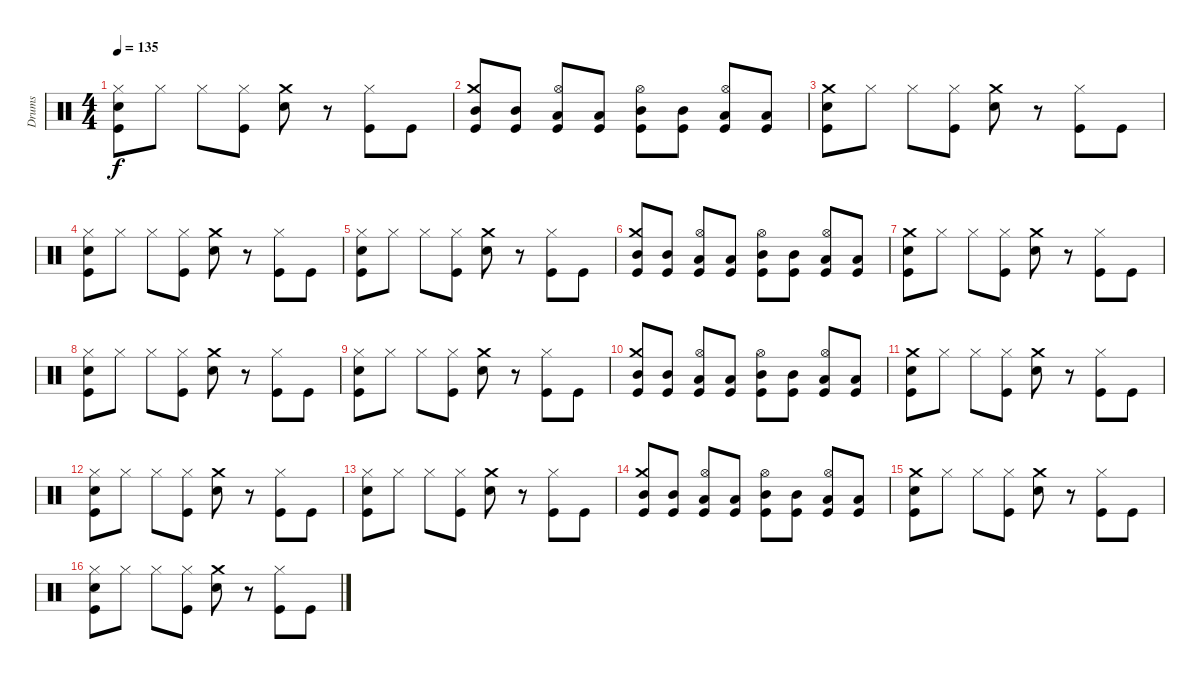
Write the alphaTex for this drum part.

\track ("Drums" "Drums") {instrument percussion}
\staff {score}
\articulation defaults
\ts (4 4)
\tempo 135
\clef neutral
\ks c
("Hi-Hat (closed)" "Snare (hit) 2" "Kick (hit)").8{dy f} "Hi-Hat (closed)".8 "Hi-Hat (closed)".8 ("Hi-Hat (closed)" "Kick (hit)").8 ("Crash medium (hit)" "Snare (hit) 2").8 r.8 ("Hi-Hat (closed)" "Kick (hit)").8 "Kick (hit)".8 |
("Crash medium (hit)" "Mid Tom (hit)" "Kick (hit)").8 ("Mid Tom (hit)" "Kick (hit)").8 ("Hi-Hat (open)" "Low Tom (hit)" "Kick (hit)").8 ("Low Tom (hit)" "Kick (hit)").8 ("Hi-Hat (open)" "Mid Tom (hit)" "Kick (hit)").8 ("Mid Tom (hit)" "Kick (hit)").8 ("Hi-Hat (open)" "Low Tom (hit)" "Kick (hit)").8 ("Low Tom (hit)" "Kick (hit)").8 |
("Crash medium (hit)" "Snare (hit) 2" "Kick (hit)").8 "Hi-Hat (closed)".8 "Hi-Hat (closed)".8 ("Hi-Hat (closed)" "Kick (hit)").8 ("Crash medium (hit)" "Snare (hit) 2").8 r.8 ("Hi-Hat (closed)" "Kick (hit)").8 "Kick (hit)".8 |
("Hi-Hat (closed)" "Snare (hit) 2" "Kick (hit)").8 "Hi-Hat (closed)".8 "Hi-Hat (closed)".8 ("Hi-Hat (closed)" "Kick (hit)").8 ("Crash medium (hit)" "Snare (hit) 2").8 r.8 ("Hi-Hat (closed)" "Kick (hit)").8 "Kick (hit)".8 |
("Hi-Hat (closed)" "Snare (hit) 2" "Kick (hit)").8 "Hi-Hat (closed)".8 "Hi-Hat (closed)".8 ("Hi-Hat (closed)" "Kick (hit)").8 ("Crash medium (hit)" "Snare (hit) 2").8 r.8 ("Hi-Hat (closed)" "Kick (hit)").8 "Kick (hit)".8 |
("Crash medium (hit)" "Mid Tom (hit)" "Kick (hit)").8 ("Mid Tom (hit)" "Kick (hit)").8 ("Hi-Hat (open)" "Low Tom (hit)" "Kick (hit)").8 ("Low Tom (hit)" "Kick (hit)").8 ("Hi-Hat (open)" "Mid Tom (hit)" "Kick (hit)").8 ("Mid Tom (hit)" "Kick (hit)").8 ("Hi-Hat (open)" "Low Tom (hit)" "Kick (hit)").8 ("Low Tom (hit)" "Kick (hit)").8 |
("Crash medium (hit)" "Snare (hit) 2" "Kick (hit)").8 "Hi-Hat (closed)".8 "Hi-Hat (closed)".8 ("Hi-Hat (closed)" "Kick (hit)").8 ("Crash medium (hit)" "Snare (hit) 2").8 r.8 ("Hi-Hat (closed)" "Kick (hit)").8 "Kick (hit)".8 |
("Hi-Hat (closed)" "Snare (hit) 2" "Kick (hit)").8 "Hi-Hat (closed)".8 "Hi-Hat (closed)".8 ("Hi-Hat (closed)" "Kick (hit)").8 ("Crash medium (hit)" "Snare (hit) 2").8 r.8 ("Hi-Hat (closed)" "Kick (hit)").8 "Kick (hit)".8 |
("Hi-Hat (closed)" "Snare (hit) 2" "Kick (hit)").8 "Hi-Hat (closed)".8 "Hi-Hat (closed)".8 ("Hi-Hat (closed)" "Kick (hit)").8 ("Crash medium (hit)" "Snare (hit) 2").8 r.8 ("Hi-Hat (closed)" "Kick (hit)").8 "Kick (hit)".8 |
("Crash medium (hit)" "Mid Tom (hit)" "Kick (hit)").8 ("Mid Tom (hit)" "Kick (hit)").8 ("Hi-Hat (open)" "Low Tom (hit)" "Kick (hit)").8 ("Low Tom (hit)" "Kick (hit)").8 ("Hi-Hat (open)" "Mid Tom (hit)" "Kick (hit)").8 ("Mid Tom (hit)" "Kick (hit)").8 ("Hi-Hat (open)" "Low Tom (hit)" "Kick (hit)").8 ("Low Tom (hit)" "Kick (hit)").8 |
("Crash medium (hit)" "Snare (hit) 2" "Kick (hit)").8 "Hi-Hat (closed)".8 "Hi-Hat (closed)".8 ("Hi-Hat (closed)" "Kick (hit)").8 ("Crash medium (hit)" "Snare (hit) 2").8 r.8 ("Hi-Hat (closed)" "Kick (hit)").8 "Kick (hit)".8 |
("Hi-Hat (closed)" "Snare (hit) 2" "Kick (hit)").8 "Hi-Hat (closed)".8 "Hi-Hat (closed)".8 ("Hi-Hat (closed)" "Kick (hit)").8 ("Crash medium (hit)" "Snare (hit) 2").8 r.8 ("Hi-Hat (closed)" "Kick (hit)").8 "Kick (hit)".8 |
("Hi-Hat (closed)" "Snare (hit) 2" "Kick (hit)").8 "Hi-Hat (closed)".8 "Hi-Hat (closed)".8 ("Hi-Hat (closed)" "Kick (hit)").8 ("Crash medium (hit)" "Snare (hit) 2").8 r.8 ("Hi-Hat (closed)" "Kick (hit)").8 "Kick (hit)".8 |
("Crash medium (hit)" "Mid Tom (hit)" "Kick (hit)").8 ("Mid Tom (hit)" "Kick (hit)").8 ("Hi-Hat (open)" "Low Tom (hit)" "Kick (hit)").8 ("Low Tom (hit)" "Kick (hit)").8 ("Hi-Hat (open)" "Mid Tom (hit)" "Kick (hit)").8 ("Mid Tom (hit)" "Kick (hit)").8 ("Hi-Hat (open)" "Low Tom (hit)" "Kick (hit)").8 ("Low Tom (hit)" "Kick (hit)").8 |
("Crash medium (hit)" "Snare (hit) 2" "Kick (hit)").8 "Hi-Hat (closed)".8 "Hi-Hat (closed)".8 ("Hi-Hat (closed)" "Kick (hit)").8 ("Crash medium (hit)" "Snare (hit) 2").8 r.8 ("Hi-Hat (closed)" "Kick (hit)").8 "Kick (hit)".8 |
("Hi-Hat (closed)" "Snare (hit) 2" "Kick (hit)").8 "Hi-Hat (closed)".8 "Hi-Hat (closed)".8 ("Hi-Hat (closed)" "Kick (hit)").8 ("Crash medium (hit)" "Snare (hit) 2").8 r.8 ("Hi-Hat (closed)" "Kick (hit)").8 "Kick (hit)".8
